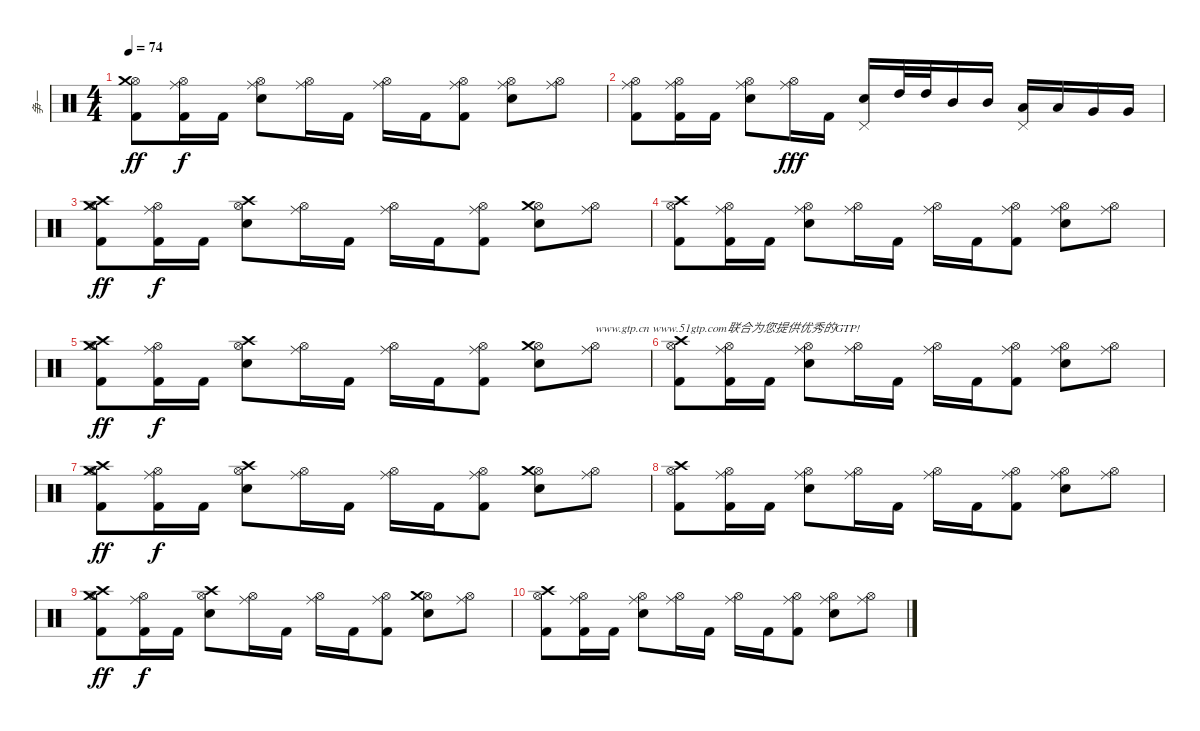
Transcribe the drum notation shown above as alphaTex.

\track ("争一" "争一") {instrument percussion}
\staff {score}
\articulation defaults
\ts (4 4)
\tempo 74
\clef neutral
\ks c
("Hi-Hat (open)" "Crash medium (hit)" "Kick (hit) 2").8{dy ff} ("Hi-Hat (open)" "Ride (middle)" "Kick (hit) 2").16{dy f} "Kick (hit) 2".16 ("Hi-Hat (open)" "Ride (middle)" "Snare (hit) 2").8 ("Hi-Hat (open)" "Ride (middle)").16 "Kick (hit) 2".16 ("Hi-Hat (open)" "Ride (middle)").16 "Kick (hit) 2".16 ("Hi-Hat (open)" "Ride (middle)" "Kick (hit) 2").8 ("Hi-Hat (open)" "Ride (middle)" "Snare (hit) 2").8 ("Hi-Hat (open)" "Ride (middle)").8 |
("Hi-Hat (open)" "Ride (middle)" "Kick (hit) 2").8 ("Hi-Hat (open)" "Ride (middle)" "Kick (hit) 2").16 "Kick (hit) 2".16 ("Hi-Hat (open)" "Ride (middle)" "Snare (hit) 2").8 ("Hi-Hat (open)" "Ride (middle)").16{dy fff} "Kick (hit) 2".16 ("Pedal Hi-Hat (hit)" "Snare (hit) 2").16 "High Tom (hit)".32 "High Tom (hit)".32 "Mid Tom (hit)".16 "Mid Tom (hit)".16 ("Pedal Hi-Hat (hit)" "Low Tom (hit)").16 "Low Tom (hit)".16 "Very Low Tom (hit)".16 "Very Low Tom (hit)".16 |
("Hi-Hat (open)" "Crash medium (hit)" "Crash high (hit)" "Kick (hit) 2").8{dy ff} ("Hi-Hat (open)" "Ride (middle)" "Kick (hit) 2").16{dy f} "Kick (hit) 2".16 ("Hi-Hat (open)" "Crash high (hit)" "Snare (hit) 2").8 ("Hi-Hat (open)" "Ride (middle)").16 "Kick (hit) 2".16 ("Hi-Hat (open)" "Ride (middle)").16 "Kick (hit) 2".16 ("Hi-Hat (open)" "Ride (middle)" "Kick (hit) 2").8 ("Hi-Hat (open)" "Crash medium (hit)" "Snare (hit) 2").8 ("Hi-Hat (open)" "Ride (middle)").8 |
("Hi-Hat (open)" "Crash high (hit)" "Kick (hit) 2").8 ("Hi-Hat (open)" "Ride (middle)" "Kick (hit) 2").16 "Kick (hit) 2".16 ("Hi-Hat (open)" "Ride (middle)" "Snare (hit) 2").8 ("Hi-Hat (open)" "Ride (middle)").16 "Kick (hit) 2".16 ("Hi-Hat (open)" "Ride (middle)").16 "Kick (hit) 2".16 ("Hi-Hat (open)" "Ride (middle)" "Kick (hit) 2").8 ("Hi-Hat (open)" "Ride (middle)" "Snare (hit) 2").8 ("Hi-Hat (open)" "Ride (middle)").8 |
("Hi-Hat (open)" "Crash medium (hit)" "Crash high (hit)" "Kick (hit) 2").8{dy ff} ("Hi-Hat (open)" "Ride (middle)" "Kick (hit) 2").16{dy f} "Kick (hit) 2".16 ("Hi-Hat (open)" "Crash high (hit)" "Snare (hit) 2").8 ("Hi-Hat (open)" "Ride (middle)").16 "Kick (hit) 2".16 ("Hi-Hat (open)" "Ride (middle)").16 "Kick (hit) 2".16 ("Hi-Hat (open)" "Ride (middle)" "Kick (hit) 2").8 ("Hi-Hat (open)" "Crash medium (hit)" "Snare (hit) 2").8 ("Hi-Hat (open)" "Ride (middle)").8{txt "www.gtp.cn www.51gtp.com联合为您提供优秀的GTP!"} |
("Hi-Hat (open)" "Crash high (hit)" "Kick (hit) 2").8 ("Hi-Hat (open)" "Ride (middle)" "Kick (hit) 2").16 "Kick (hit) 2".16 ("Hi-Hat (open)" "Ride (middle)" "Snare (hit) 2").8 ("Hi-Hat (open)" "Ride (middle)").16 "Kick (hit) 2".16 ("Hi-Hat (open)" "Ride (middle)").16 "Kick (hit) 2".16 ("Hi-Hat (open)" "Ride (middle)" "Kick (hit) 2").8 ("Hi-Hat (open)" "Ride (middle)" "Snare (hit) 2").8 ("Hi-Hat (open)" "Ride (middle)").8 |
("Hi-Hat (open)" "Crash medium (hit)" "Crash high (hit)" "Kick (hit) 2").8{dy ff} ("Hi-Hat (open)" "Ride (middle)" "Kick (hit) 2").16{dy f} "Kick (hit) 2".16 ("Hi-Hat (open)" "Crash high (hit)" "Snare (hit) 2").8 ("Hi-Hat (open)" "Ride (middle)").16 "Kick (hit) 2".16 ("Hi-Hat (open)" "Ride (middle)").16 "Kick (hit) 2".16 ("Hi-Hat (open)" "Ride (middle)" "Kick (hit) 2").8 ("Hi-Hat (open)" "Crash medium (hit)" "Snare (hit) 2").8 ("Hi-Hat (open)" "Ride (middle)").8 |
("Hi-Hat (open)" "Crash high (hit)" "Kick (hit) 2").8 ("Hi-Hat (open)" "Ride (middle)" "Kick (hit) 2").16 "Kick (hit) 2".16 ("Hi-Hat (open)" "Ride (middle)" "Snare (hit) 2").8 ("Hi-Hat (open)" "Ride (middle)").16 "Kick (hit) 2".16 ("Hi-Hat (open)" "Ride (middle)").16 "Kick (hit) 2".16 ("Hi-Hat (open)" "Ride (middle)" "Kick (hit) 2").8 ("Hi-Hat (open)" "Ride (middle)" "Snare (hit) 2").8 ("Hi-Hat (open)" "Ride (middle)").8 |
("Hi-Hat (open)" "Crash medium (hit)" "Crash high (hit)" "Kick (hit) 2").8{dy ff} ("Hi-Hat (open)" "Ride (middle)" "Kick (hit) 2").16{dy f} "Kick (hit) 2".16 ("Hi-Hat (open)" "Crash high (hit)" "Snare (hit) 2").8 ("Hi-Hat (open)" "Ride (middle)").16 "Kick (hit) 2".16 ("Hi-Hat (open)" "Ride (middle)").16 "Kick (hit) 2".16 ("Hi-Hat (open)" "Ride (middle)" "Kick (hit) 2").8 ("Hi-Hat (open)" "Crash medium (hit)" "Snare (hit) 2").8 ("Hi-Hat (open)" "Ride (middle)").8 |
("Hi-Hat (open)" "Crash high (hit)" "Kick (hit) 2").8 ("Hi-Hat (open)" "Ride (middle)" "Kick (hit) 2").16 "Kick (hit) 2".16 ("Hi-Hat (open)" "Ride (middle)" "Snare (hit) 2").8 ("Hi-Hat (open)" "Ride (middle)").16 "Kick (hit) 2".16 ("Hi-Hat (open)" "Ride (middle)").16 "Kick (hit) 2".16 ("Hi-Hat (open)" "Ride (middle)" "Kick (hit) 2").8 ("Hi-Hat (open)" "Ride (middle)" "Snare (hit) 2").8 ("Hi-Hat (open)" "Ride (middle)").8
